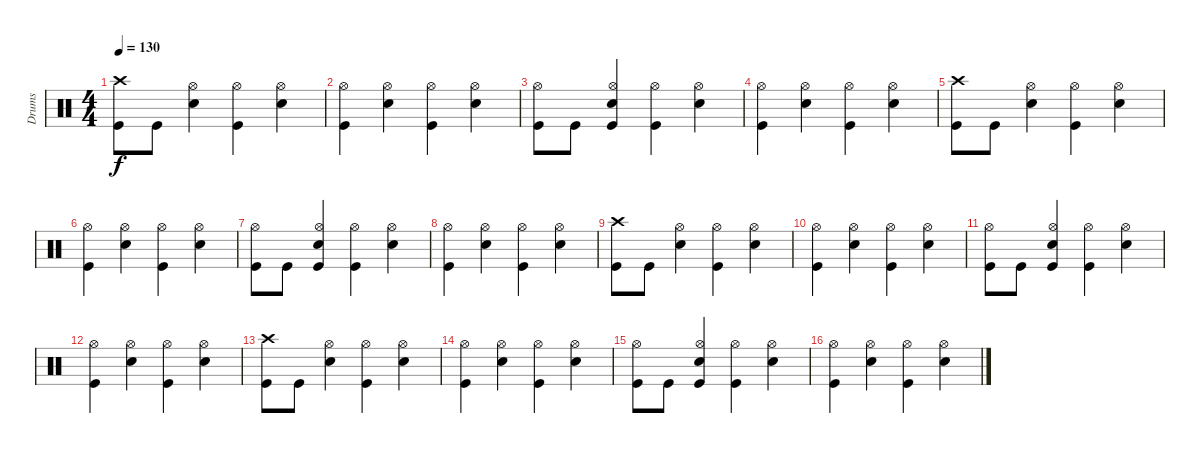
\track ("Drums" "Drums") {instrument percussion}
\staff {score}
\articulation defaults
\ts (4 4)
\tempo 130
\clef neutral
\ks c
("Crash high (hit)" "Kick (hit)").8{dy f} "Kick (hit)".8 ("Hi-Hat (open)" "Snare (hit) 2").4 ("Hi-Hat (open)" "Kick (hit)").4 ("Hi-Hat (open)" "Snare (hit) 2").4 |
("Hi-Hat (open)" "Kick (hit)").4 ("Hi-Hat (open)" "Snare (hit) 2").4 ("Hi-Hat (open)" "Kick (hit)").4 ("Hi-Hat (open)" "Snare (hit) 2").4 |
("Hi-Hat (open)" "Kick (hit)").8 "Kick (hit)".8 ("Hi-Hat (open)" "Snare (hit) 2" "Kick (hit)").4 ("Hi-Hat (open)" "Kick (hit)").4 ("Hi-Hat (open)" "Snare (hit) 2").4 |
("Hi-Hat (open)" "Kick (hit)").4 ("Hi-Hat (open)" "Snare (hit) 2").4 ("Hi-Hat (open)" "Kick (hit)").4 ("Hi-Hat (open)" "Snare (hit) 2").4 |
("Crash high (hit)" "Kick (hit)").8 "Kick (hit)".8 ("Hi-Hat (open)" "Snare (hit) 2").4 ("Hi-Hat (open)" "Kick (hit)").4 ("Hi-Hat (open)" "Snare (hit) 2").4 |
("Hi-Hat (open)" "Kick (hit)").4 ("Hi-Hat (open)" "Snare (hit) 2").4 ("Hi-Hat (open)" "Kick (hit)").4 ("Hi-Hat (open)" "Snare (hit) 2").4 |
("Hi-Hat (open)" "Kick (hit)").8 "Kick (hit)".8 ("Hi-Hat (open)" "Snare (hit) 2" "Kick (hit)").4 ("Hi-Hat (open)" "Kick (hit)").4 ("Hi-Hat (open)" "Snare (hit) 2").4 |
("Hi-Hat (open)" "Kick (hit)").4 ("Hi-Hat (open)" "Snare (hit) 2").4 ("Hi-Hat (open)" "Kick (hit)").4 ("Hi-Hat (open)" "Snare (hit) 2").4 |
("Crash high (hit)" "Kick (hit)").8 "Kick (hit)".8 ("Hi-Hat (open)" "Snare (hit) 2").4 ("Hi-Hat (open)" "Kick (hit)").4 ("Hi-Hat (open)" "Snare (hit) 2").4 |
("Hi-Hat (open)" "Kick (hit)").4 ("Hi-Hat (open)" "Snare (hit) 2").4 ("Hi-Hat (open)" "Kick (hit)").4 ("Hi-Hat (open)" "Snare (hit) 2").4 |
("Hi-Hat (open)" "Kick (hit)").8 "Kick (hit)".8 ("Hi-Hat (open)" "Snare (hit) 2" "Kick (hit)").4 ("Hi-Hat (open)" "Kick (hit)").4 ("Hi-Hat (open)" "Snare (hit) 2").4 |
("Hi-Hat (open)" "Kick (hit)").4 ("Hi-Hat (open)" "Snare (hit) 2").4 ("Hi-Hat (open)" "Kick (hit)").4 ("Hi-Hat (open)" "Snare (hit) 2").4 |
("Crash high (hit)" "Kick (hit)").8 "Kick (hit)".8 ("Hi-Hat (open)" "Snare (hit) 2").4 ("Hi-Hat (open)" "Kick (hit)").4 ("Hi-Hat (open)" "Snare (hit) 2").4 |
("Hi-Hat (open)" "Kick (hit)").4 ("Hi-Hat (open)" "Snare (hit) 2").4 ("Hi-Hat (open)" "Kick (hit)").4 ("Hi-Hat (open)" "Snare (hit) 2").4 |
("Hi-Hat (open)" "Kick (hit)").8 "Kick (hit)".8 ("Hi-Hat (open)" "Snare (hit) 2" "Kick (hit)").4 ("Hi-Hat (open)" "Kick (hit)").4 ("Hi-Hat (open)" "Snare (hit) 2").4 |
("Hi-Hat (open)" "Kick (hit)").4 ("Hi-Hat (open)" "Snare (hit) 2").4 ("Hi-Hat (open)" "Kick (hit)").4 ("Hi-Hat (open)" "Snare (hit) 2").4
